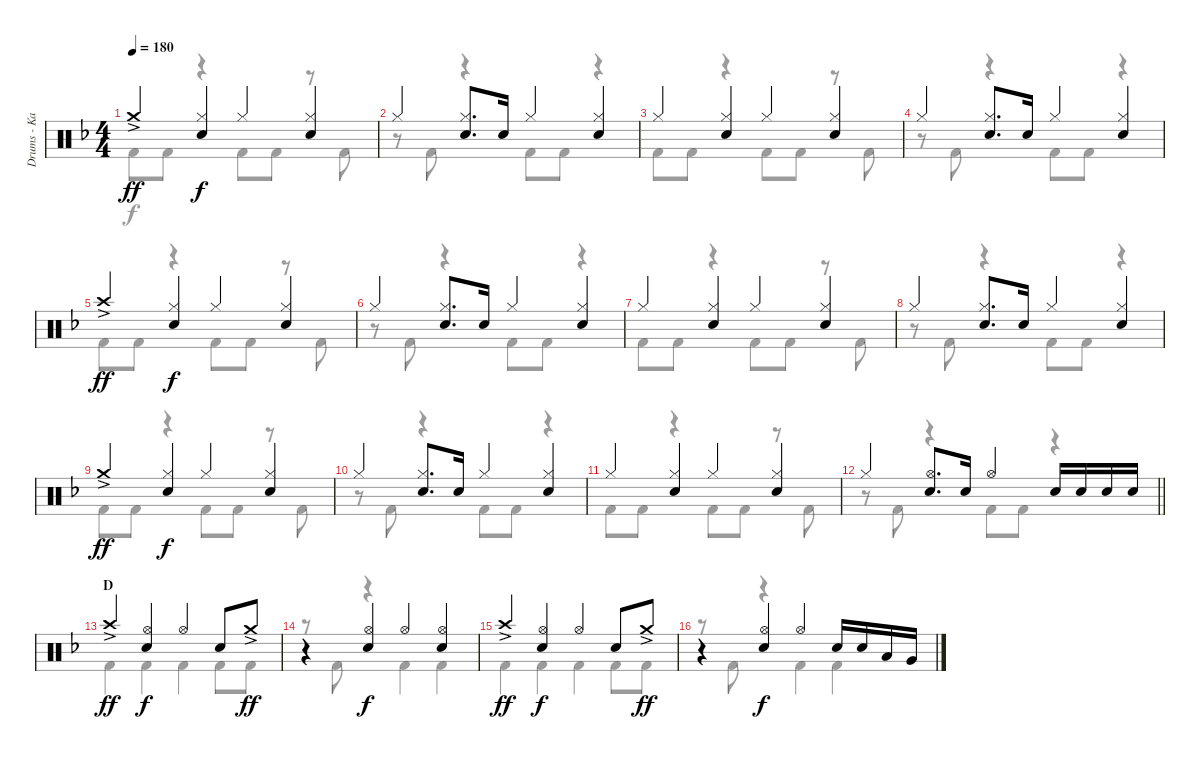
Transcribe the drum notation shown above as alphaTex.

\track ("Drums - Kai" "Drums - Ka") {instrument percussion}
\staff {score}
\articulation defaults
\voice
\ts (4 4)
\tempo 180
\clef neutral
\ks f "Crash medium (hit)"{ac}.4{dy ff}
("Hi-Hat (closed)" "Snare (hit) 2").4{dy f} "Hi-Hat (closed)".4 ("Hi-Hat (closed)" "Snare (hit) 2").4 |
"Hi-Hat (closed)".4 ("Hi-Hat (closed)" "Snare (hit) 2").8{d} "Snare (hit) 2".16 "Hi-Hat (closed)".4 ("Hi-Hat (closed)" "Snare (hit) 2").4 |
"Hi-Hat (closed)".4 ("Hi-Hat (closed)" "Snare (hit) 2").4 "Hi-Hat (closed)".4 ("Hi-Hat (closed)" "Snare (hit) 2").4 |
"Hi-Hat (closed)".4 ("Hi-Hat (closed)" "Snare (hit) 2").8{d} "Snare (hit) 2".16 "Hi-Hat (closed)".4 ("Hi-Hat (closed)" "Snare (hit) 2").4 |
"Crash high (hit)"{ac}.4{dy ff} ("Hi-Hat (closed)" "Snare (hit) 2").4{dy f} "Hi-Hat (closed)".4 ("Hi-Hat (closed)" "Snare (hit) 2").4 |
"Hi-Hat (closed)".4 ("Hi-Hat (closed)" "Snare (hit) 2").8{d} "Snare (hit) 2".16 "Hi-Hat (closed)".4 ("Hi-Hat (closed)" "Snare (hit) 2").4 |
"Hi-Hat (closed)".4 ("Hi-Hat (closed)" "Snare (hit) 2").4 "Hi-Hat (closed)".4 ("Hi-Hat (closed)" "Snare (hit) 2").4 |
"Hi-Hat (closed)".4 ("Hi-Hat (closed)" "Snare (hit) 2").8{d} "Snare (hit) 2".16 "Hi-Hat (closed)".4 ("Hi-Hat (closed)" "Snare (hit) 2").4 |
"Crash medium (hit)"{ac}.4{dy ff} ("Hi-Hat (closed)" "Snare (hit) 2").4{dy f} "Hi-Hat (closed)".4 ("Hi-Hat (closed)" "Snare (hit) 2").4 |
"Hi-Hat (closed)".4 ("Hi-Hat (closed)" "Snare (hit) 2").8{d} "Snare (hit) 2".16 "Hi-Hat (closed)".4 ("Hi-Hat (closed)" "Snare (hit) 2").4 |
"Hi-Hat (closed)".4 ("Hi-Hat (closed)" "Snare (hit) 2").4 "Hi-Hat (closed)".4 ("Hi-Hat (closed)" "Snare (hit) 2").4 |
\barLineRight lightlight "Hi-Hat (closed)".4
("Hi-Hat (open)" "Snare (hit) 2").8{d} "Snare (hit) 2".16 "Hi-Hat (open)".4 "Snare (hit) 2".16 "Snare (hit) 2".16 "Snare (hit) 2".16 "Snare (hit) 2".16 |
\section ("" "D")
"Crash high (hit)"{ac}.4{dy ff} ("Hi-Hat (open)" "Snare (hit) 2").4{dy f} "Hi-Hat (open)".4 "Snare (hit) 2".8 "Crash medium (hit)"{ac}.8{dy ff} |
r.4 ("Hi-Hat (open)" "Snare (hit) 2").4{dy f} "Hi-Hat (open)".4 ("Hi-Hat (open)" "Snare (hit) 2").4 |
"Crash high (hit)"{ac}.4{dy ff} ("Hi-Hat (open)" "Snare (hit) 2").4{dy f} "Hi-Hat (open)".4 "Snare (hit) 2".8 "Crash medium (hit)"{ac}.8{dy ff} |
r.4 ("Hi-Hat (open)" "Snare (hit) 2").4{dy f} "Hi-Hat (open)".4 "Snare (hit) 2".16 "Snare (hit) 2".16 "Low Tom (hit)".16 "Very Low Tom (hit)".16
\voice
\clef neutral
\ottava regular
\simile none
\ks f "Kick (hit) 2".8{dy f} "Kick (hit) 2".8
r.4 "Kick (hit) 2".8 "Kick (hit) 2".8 r.8 "Kick (hit) 2".8 |
r.8 "Kick (hit) 2".8 r.4 "Kick (hit) 2".8 "Kick (hit) 2".8 r.4 |
"Kick (hit) 2".8 "Kick (hit) 2".8 r.4 "Kick (hit) 2".8 "Kick (hit) 2".8 r.8 "Kick (hit) 2".8 |
r.8 "Kick (hit) 2".8 r.4 "Kick (hit) 2".8 "Kick (hit) 2".8 r.4 |
"Kick (hit) 2".8 "Kick (hit) 2".8 r.4 "Kick (hit) 2".8 "Kick (hit) 2".8 r.8 "Kick (hit) 2".8 |
r.8 "Kick (hit) 2".8 r.4 "Kick (hit) 2".8 "Kick (hit) 2".8 r.4 |
"Kick (hit) 2".8 "Kick (hit) 2".8 r.4 "Kick (hit) 2".8 "Kick (hit) 2".8 r.8 "Kick (hit) 2".8 |
r.8 "Kick (hit) 2".8 r.4 "Kick (hit) 2".8 "Kick (hit) 2".8 r.4 |
"Kick (hit) 2".8 "Kick (hit) 2".8 r.4 "Kick (hit) 2".8 "Kick (hit) 2".8 r.8 "Kick (hit) 2".8 |
r.8 "Kick (hit) 2".8 r.4 "Kick (hit) 2".8 "Kick (hit) 2".8 r.4 |
"Kick (hit) 2".8 "Kick (hit) 2".8 r.4 "Kick (hit) 2".8 "Kick (hit) 2".8 r.8 "Kick (hit) 2".8 |
\barLineRight lightlight
r.8 "Kick (hit) 2".8 r.4 "Kick (hit) 2".8 "Kick (hit) 2".8 r.4 |
"Kick (hit) 2".4 "Kick (hit) 2".4 "Kick (hit) 2".4 "Kick (hit) 2".8 "Kick (hit) 2".8 |
r.8 "Kick (hit) 2".8 r.4 "Kick (hit) 2".4 "Kick (hit) 2".4 |
"Kick (hit) 2".4 "Kick (hit) 2".4 "Kick (hit) 2".4 "Kick (hit) 2".8 "Kick (hit) 2".8 |
r.8 "Kick (hit) 2".8 r.4 "Kick (hit) 2".4 "Kick (hit) 2".4
